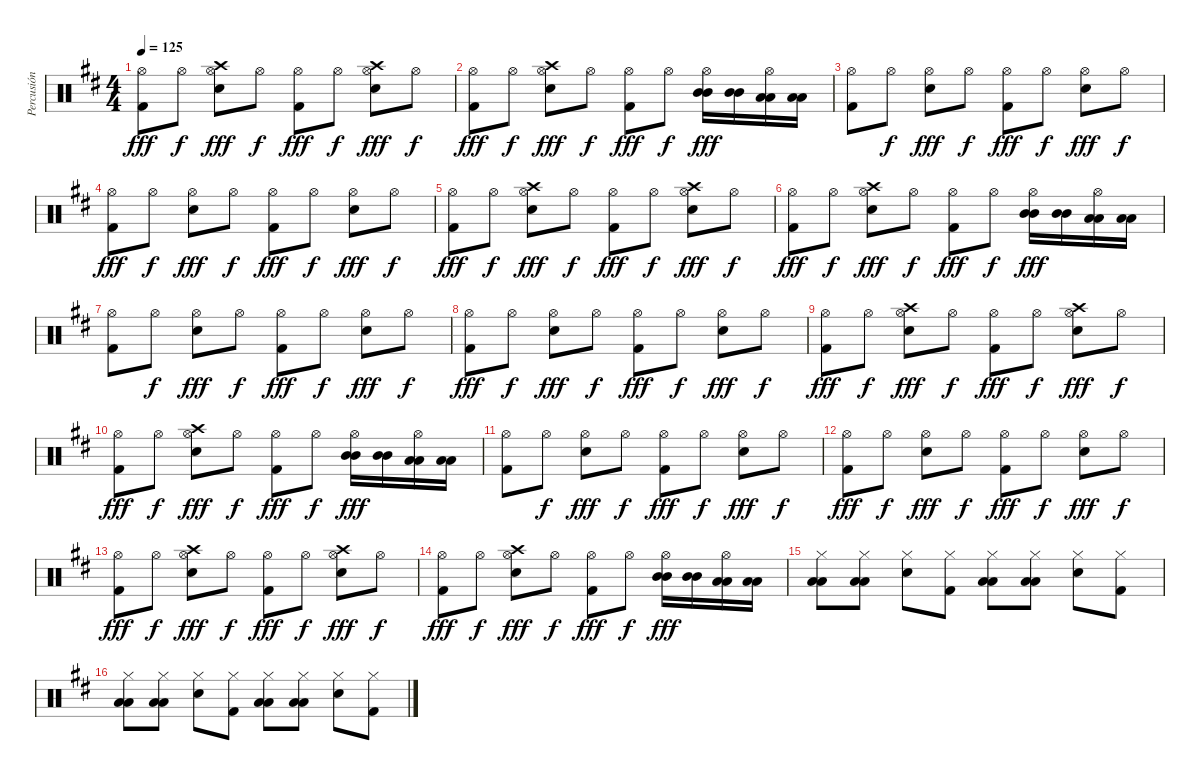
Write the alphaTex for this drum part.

\track ("Percusión" "Percusión") {instrument percussion}
\staff {score}
\articulation defaults
\ts (4 4)
\tempo 125
\clef neutral
\ks d
("Hi-Hat (open)" "Kick (hit) 2").8{dy fff} "Hi-Hat (open)".8{dy f} ("Crash high (hit)" "Hi-Hat (open)" "Electric Snare (hit)").8{dy fff} "Hi-Hat (open)".8{dy f} ("Hi-Hat (open)" "Kick (hit) 2").8{dy fff} "Hi-Hat (open)".8{dy f} ("Crash high (hit)" "Hi-Hat (open)" "Electric Snare (hit)").8{dy fff} "Hi-Hat (open)".8{dy f} |
("Hi-Hat (open)" "Kick (hit) 2").8{dy fff} "Hi-Hat (open)".8{dy f} ("Crash high (hit)" "Hi-Hat (open)" "Electric Snare (hit)").8{dy fff} "Hi-Hat (open)".8{dy f} ("Hi-Hat (open)" "Kick (hit) 2").8{dy fff} "Hi-Hat (open)".8{dy f} ("Hi-Hat (open)" "Mid Tom (hit)" "Mid Tom (hit)").16{dy fff} ("Mid Tom (hit)" "Mid Tom (hit)").16 ("Hi-Hat (open)" "Low Tom (hit)" "Low Tom (hit)").16 ("Low Tom (hit)" "Low Tom (hit)").16 |
("Hi-Hat (open)" "Kick (hit) 2").8 "Hi-Hat (open)".8{dy f} ("Hi-Hat (open)" "Electric Snare (hit)").8{dy fff} "Hi-Hat (open)".8{dy f} ("Hi-Hat (open)" "Kick (hit) 2").8{dy fff} "Hi-Hat (open)".8{dy f} ("Hi-Hat (open)" "Electric Snare (hit)").8{dy fff} "Hi-Hat (open)".8{dy f} |
("Hi-Hat (open)" "Kick (hit) 2").8{dy fff} "Hi-Hat (open)".8{dy f} ("Hi-Hat (open)" "Electric Snare (hit)").8{dy fff} "Hi-Hat (open)".8{dy f} ("Hi-Hat (open)" "Kick (hit) 2").8{dy fff} "Hi-Hat (open)".8{dy f} ("Hi-Hat (open)" "Electric Snare (hit)").8{dy fff} "Hi-Hat (open)".8{dy f} |
("Hi-Hat (open)" "Kick (hit) 2").8{dy fff} "Hi-Hat (open)".8{dy f} ("Crash high (hit)" "Hi-Hat (open)" "Electric Snare (hit)").8{dy fff} "Hi-Hat (open)".8{dy f} ("Hi-Hat (open)" "Kick (hit) 2").8{dy fff} "Hi-Hat (open)".8{dy f} ("Crash high (hit)" "Hi-Hat (open)" "Electric Snare (hit)").8{dy fff} "Hi-Hat (open)".8{dy f} |
("Hi-Hat (open)" "Kick (hit) 2").8{dy fff} "Hi-Hat (open)".8{dy f} ("Crash high (hit)" "Hi-Hat (open)" "Electric Snare (hit)").8{dy fff} "Hi-Hat (open)".8{dy f} ("Hi-Hat (open)" "Kick (hit) 2").8{dy fff} "Hi-Hat (open)".8{dy f} ("Hi-Hat (open)" "Mid Tom (hit)" "Mid Tom (hit)").16{dy fff} ("Mid Tom (hit)" "Mid Tom (hit)").16 ("Hi-Hat (open)" "Low Tom (hit)" "Low Tom (hit)").16 ("Low Tom (hit)" "Low Tom (hit)").16 |
("Hi-Hat (open)" "Kick (hit) 2").8 "Hi-Hat (open)".8{dy f} ("Hi-Hat (open)" "Electric Snare (hit)").8{dy fff} "Hi-Hat (open)".8{dy f} ("Hi-Hat (open)" "Kick (hit) 2").8{dy fff} "Hi-Hat (open)".8{dy f} ("Hi-Hat (open)" "Electric Snare (hit)").8{dy fff} "Hi-Hat (open)".8{dy f} |
("Hi-Hat (open)" "Kick (hit) 2").8{dy fff} "Hi-Hat (open)".8{dy f} ("Hi-Hat (open)" "Electric Snare (hit)").8{dy fff} "Hi-Hat (open)".8{dy f} ("Hi-Hat (open)" "Kick (hit) 2").8{dy fff} "Hi-Hat (open)".8{dy f} ("Hi-Hat (open)" "Electric Snare (hit)").8{dy fff} "Hi-Hat (open)".8{dy f} |
("Hi-Hat (open)" "Kick (hit) 2").8{dy fff} "Hi-Hat (open)".8{dy f} ("Crash high (hit)" "Hi-Hat (open)" "Electric Snare (hit)").8{dy fff} "Hi-Hat (open)".8{dy f} ("Hi-Hat (open)" "Kick (hit) 2").8{dy fff} "Hi-Hat (open)".8{dy f} ("Crash high (hit)" "Hi-Hat (open)" "Electric Snare (hit)").8{dy fff} "Hi-Hat (open)".8{dy f} |
("Hi-Hat (open)" "Kick (hit) 2").8{dy fff} "Hi-Hat (open)".8{dy f} ("Crash high (hit)" "Hi-Hat (open)" "Electric Snare (hit)").8{dy fff} "Hi-Hat (open)".8{dy f} ("Hi-Hat (open)" "Kick (hit) 2").8{dy fff} "Hi-Hat (open)".8{dy f} ("Hi-Hat (open)" "Mid Tom (hit)" "Mid Tom (hit)").16{dy fff} ("Mid Tom (hit)" "Mid Tom (hit)").16 ("Hi-Hat (open)" "Low Tom (hit)" "Low Tom (hit)").16 ("Low Tom (hit)" "Low Tom (hit)").16 |
("Hi-Hat (open)" "Kick (hit) 2").8 "Hi-Hat (open)".8{dy f} ("Hi-Hat (open)" "Electric Snare (hit)").8{dy fff} "Hi-Hat (open)".8{dy f} ("Hi-Hat (open)" "Kick (hit) 2").8{dy fff} "Hi-Hat (open)".8{dy f} ("Hi-Hat (open)" "Electric Snare (hit)").8{dy fff} "Hi-Hat (open)".8{dy f} |
("Hi-Hat (open)" "Kick (hit) 2").8{dy fff} "Hi-Hat (open)".8{dy f} ("Hi-Hat (open)" "Electric Snare (hit)").8{dy fff} "Hi-Hat (open)".8{dy f} ("Hi-Hat (open)" "Kick (hit) 2").8{dy fff} "Hi-Hat (open)".8{dy f} ("Hi-Hat (open)" "Electric Snare (hit)").8{dy fff} "Hi-Hat (open)".8{dy f} |
("Hi-Hat (open)" "Kick (hit) 2").8{dy fff} "Hi-Hat (open)".8{dy f} ("Crash high (hit)" "Hi-Hat (open)" "Electric Snare (hit)").8{dy fff} "Hi-Hat (open)".8{dy f} ("Hi-Hat (open)" "Kick (hit) 2").8{dy fff} "Hi-Hat (open)".8{dy f} ("Crash high (hit)" "Hi-Hat (open)" "Electric Snare (hit)").8{dy fff} "Hi-Hat (open)".8{dy f} |
("Hi-Hat (open)" "Kick (hit) 2").8{dy fff} "Hi-Hat (open)".8{dy f} ("Crash high (hit)" "Hi-Hat (open)" "Electric Snare (hit)").8{dy fff} "Hi-Hat (open)".8{dy f} ("Hi-Hat (open)" "Kick (hit) 2").8{dy fff} "Hi-Hat (open)".8{dy f} ("Hi-Hat (open)" "Mid Tom (hit)" "Mid Tom (hit)").16{dy fff} ("Mid Tom (hit)" "Mid Tom (hit)").16 ("Hi-Hat (open)" "Low Tom (hit)" "Low Tom (hit)").16 ("Low Tom (hit)" "Low Tom (hit)").16 |
("Hi-Hat (closed)" "Low Tom (hit)" "Low Tom (hit)").8 ("Hi-Hat (closed)" "Low Tom (hit)" "Low Tom (hit)").8 ("Hi-Hat (closed)" "Electric Snare (hit)").8 ("Hi-Hat (closed)" "Kick (hit) 2").8 ("Hi-Hat (closed)" "Low Tom (hit)" "Low Tom (hit)").8 ("Hi-Hat (closed)" "Low Tom (hit)" "Low Tom (hit)").8 ("Hi-Hat (closed)" "Electric Snare (hit)").8 ("Hi-Hat (closed)" "Kick (hit) 2").8 |
("Hi-Hat (closed)" "Low Tom (hit)" "Low Tom (hit)").8 ("Hi-Hat (closed)" "Low Tom (hit)" "Low Tom (hit)").8 ("Hi-Hat (closed)" "Electric Snare (hit)").8 ("Hi-Hat (closed)" "Kick (hit) 2").8 ("Hi-Hat (closed)" "Low Tom (hit)" "Low Tom (hit)").8 ("Hi-Hat (closed)" "Low Tom (hit)" "Low Tom (hit)").8 ("Hi-Hat (closed)" "Electric Snare (hit)").8 ("Hi-Hat (closed)" "Kick (hit) 2").8
